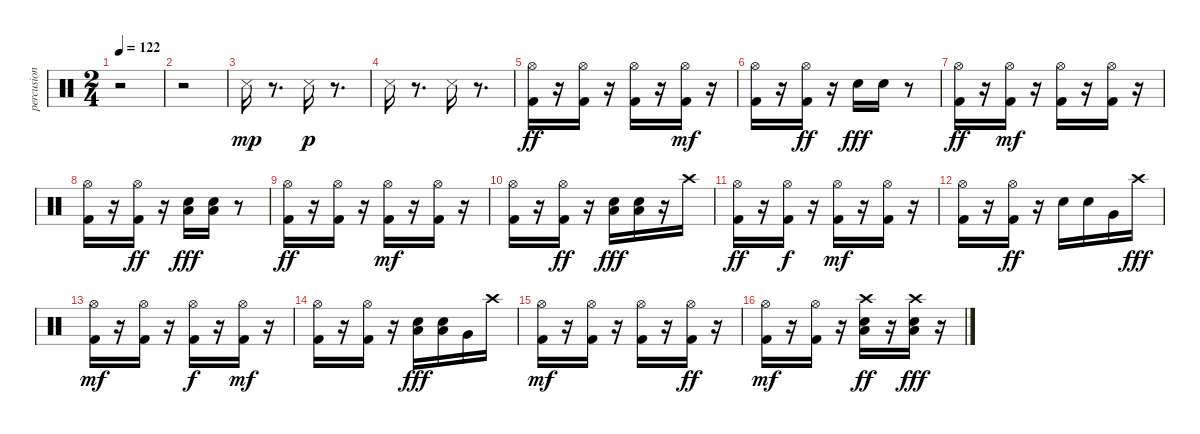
\track ("percusion" "percusion") {instrument percussion}
\staff {score}
\articulation defaults
\ts (2 4)
\tempo 122
\clef neutral
\ks c
r.2{dy mp} |
r.2 |
"Snare (side stick) 3".16{balance 8} r.8{d} "Snare (side stick) 3".16{dy p} r.8{d} |
"Snare (side stick) 3".16 r.8{d} "Snare (side stick) 3".16 r.8{d} |
("Kick (hit) 2" "Hi-Hat (open)").16{dy ff} r.16 ("Kick (hit) 2" "Hi-Hat (open)").16 r.16 ("Kick (hit) 2" "Hi-Hat (open)").16 r.16 ("Kick (hit) 2" "Hi-Hat (open)").16{dy mf} r.16 |
("Kick (hit) 2" "Hi-Hat (open)").16 r.16 ("Kick (hit) 2" "Hi-Hat (open)").16{dy ff} r.16 "Electric Snare (hit)".16{dy fff} "Electric Snare (hit)".16 r.8 |
("Kick (hit) 2" "Hi-Hat (open)").16{dy ff} r.16 ("Kick (hit) 2" "Hi-Hat (open)").16{dy mf} r.16 ("Kick (hit) 2" "Hi-Hat (open)").16 r.16 ("Kick (hit) 2" "Hi-Hat (open)").16 r.16 |
("Kick (hit) 2" "Hi-Hat (open)").16 r.16 ("Kick (hit) 2" "Hi-Hat (open)").16{dy ff} r.16 ("Electric Snare (hit)" "Low Floor Tom (hit)").16{dy fff} ("Electric Snare (hit)" "Low Floor Tom (hit)").16 r.8 |
("Kick (hit) 2" "Hi-Hat (open)").16{dy ff} r.16 ("Kick (hit) 2" "Hi-Hat (open)").16 r.16 ("Kick (hit) 2" "Hi-Hat (open)").16{dy mf} r.16 ("Kick (hit) 2" "Hi-Hat (open)").16 r.16 |
("Kick (hit) 2" "Hi-Hat (open)").16 r.16 ("Kick (hit) 2" "Hi-Hat (open)").16{dy ff} r.16 ("Electric Snare (hit)" "Low Floor Tom (hit)").16{dy fff} ("Electric Snare (hit)" "Low Floor Tom (hit)").16 r.16 "Crash high (hit)".16 |
("Kick (hit) 2" "Hi-Hat (open)").16{dy ff} r.16 ("Kick (hit) 2" "Hi-Hat (open)").16{dy f} r.16 ("Kick (hit) 2" "Hi-Hat (open)").16{dy mf} r.16 ("Kick (hit) 2" "Hi-Hat (open)").16 r.16 |
("Kick (hit) 2" "Hi-Hat (open)").16 r.16 ("Kick (hit) 2" "Hi-Hat (open)").16{dy ff} r.16 "Electric Snare (hit)".16 "Electric Snare (hit)".16 "Very Low Tom (hit)".16 "Crash high (hit)".16{dy fff} |
("Kick (hit) 2" "Hi-Hat (open)").16{dy mf} r.16 ("Kick (hit) 2" "Hi-Hat (open)").16 r.16 ("Kick (hit) 2" "Hi-Hat (open)").16{dy f} r.16 ("Kick (hit) 2" "Hi-Hat (open)").16{dy mf} r.16 |
("Kick (hit) 2" "Hi-Hat (open)").16 r.16 ("Kick (hit) 2" "Hi-Hat (open)").16 r.16 ("Electric Snare (hit)" "Low Floor Tom (hit)").16{dy fff} ("Electric Snare (hit)" "Low Floor Tom (hit)").16 "Very Low Tom (hit)".16 "Crash high (hit)".16 |
("Kick (hit) 2" "Hi-Hat (open)").16{dy mf} r.16 ("Kick (hit) 2" "Hi-Hat (open)").16 r.16 ("Kick (hit) 2" "Hi-Hat (open)").16 r.16 ("Kick (hit) 2" "Hi-Hat (open)").16{dy ff} r.16 |
("Kick (hit) 2" "Hi-Hat (open)").16{dy mf} r.16 ("Kick (hit) 2" "Hi-Hat (open)").16 r.16 ("Electric Snare (hit)" "Crash high (hit)" "Low Floor Tom (hit)").16{dy ff} r.16 ("Electric Snare (hit)" "Crash high (hit)" "Low Floor Tom (hit)").16{dy fff} r.16
